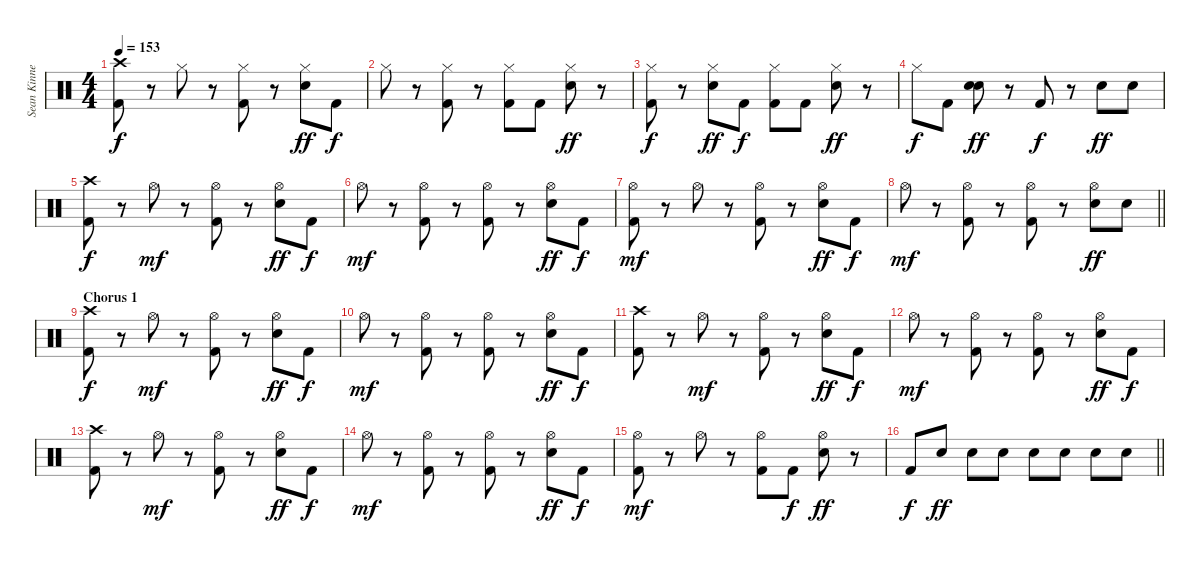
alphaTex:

\track ("Sean Kinney - Drums" "Sean Kinne") {instrument percussion}
\staff {score}
\articulation defaults
\ts (4 4)
\tempo 153
\clef neutral
\ks c
("Crash high (hit)" "Kick (hit) 2").8{dy f} r.8 "Hi-Hat (closed)".8 r.8 ("Hi-Hat (closed)" "Kick (hit) 2").8 r.8 ("Hi-Hat (closed)" "Snare (hit) 2").8{dy ff} "Kick (hit) 2".8{dy f} |
"Hi-Hat (closed)".8 r.8 ("Hi-Hat (closed)" "Kick (hit) 2").8 r.8 ("Hi-Hat (closed)" "Kick (hit) 2").8 "Kick (hit) 2".8 ("Hi-Hat (closed)" "Snare (hit) 2").8{dy ff} r.8 |
("Hi-Hat (closed)" "Kick (hit) 2").8{dy f} r.8 ("Hi-Hat (closed)" "Snare (hit) 2").8{dy ff} "Kick (hit) 2".8{dy f} ("Hi-Hat (closed)" "Kick (hit) 2").8 "Kick (hit) 2".8 ("Hi-Hat (closed)" "Snare (hit) 2").8{dy ff} r.8 |
"Hi-Hat (closed)".8{dy f} "Kick (hit) 2".8 ("Snare (hit) 2" "Snare (hit) 2").8{dy ff} r.8 "Kick (hit) 2".8{dy f} r.8 "Snare (hit) 2".8{dy ff} "Snare (hit) 2".8 |
("Crash high (hit)" "Kick (hit) 2").8{dy f} r.8 "Hi-Hat (open)".8{dy mf} r.8 ("Hi-Hat (open)" "Kick (hit) 2").8 r.8 ("Hi-Hat (open)" "Snare (hit) 2").8{dy ff} "Kick (hit) 2".8{dy f} |
"Hi-Hat (open)".8{dy mf} r.8 ("Hi-Hat (open)" "Kick (hit) 2").8 r.8 ("Hi-Hat (open)" "Kick (hit) 2").8 r.8 ("Hi-Hat (open)" "Snare (hit) 2").8{dy ff} "Kick (hit) 2".8{dy f} |
("Hi-Hat (open)" "Kick (hit) 2").8{dy mf} r.8 "Hi-Hat (open)".8 r.8 ("Hi-Hat (open)" "Kick (hit) 2").8 r.8 ("Hi-Hat (open)" "Snare (hit) 2").8{dy ff} "Kick (hit) 2".8{dy f} |
\barLineRight lightlight "Hi-Hat (open)".8{dy mf}
r.8 ("Hi-Hat (open)" "Kick (hit) 2").8 r.8 ("Hi-Hat (open)" "Kick (hit) 2").8 r.8 ("Hi-Hat (open)" "Snare (hit) 2").8{dy ff} "Snare (hit) 2".8 |
\section ("" "Chorus 1")
("Crash high (hit)" "Kick (hit) 2").8{dy f} r.8 "Hi-Hat (open)".8{dy mf} r.8 ("Hi-Hat (open)" "Kick (hit) 2").8 r.8 ("Hi-Hat (open)" "Snare (hit) 2").8{dy ff} "Kick (hit) 2".8{dy f} |
"Hi-Hat (open)".8{dy mf} r.8 ("Hi-Hat (open)" "Kick (hit) 2").8 r.8 ("Hi-Hat (open)" "Kick (hit) 2").8 r.8 ("Hi-Hat (open)" "Snare (hit) 2").8{dy ff} "Kick (hit) 2".8{dy f} |
("Crash high (hit)" "Kick (hit) 2").8 r.8 "Hi-Hat (open)".8{dy mf} r.8 ("Hi-Hat (open)" "Kick (hit) 2").8 r.8 ("Hi-Hat (open)" "Snare (hit) 2").8{dy ff} "Kick (hit) 2".8{dy f} |
"Hi-Hat (open)".8{dy mf} r.8 ("Hi-Hat (open)" "Kick (hit) 2").8 r.8 ("Hi-Hat (open)" "Kick (hit) 2").8 r.8 ("Hi-Hat (open)" "Snare (hit) 2").8{dy ff} "Kick (hit) 2".8{dy f} |
("Crash high (hit)" "Kick (hit) 2").8 r.8 "Hi-Hat (open)".8{dy mf} r.8 ("Hi-Hat (open)" "Kick (hit) 2").8 r.8 ("Hi-Hat (open)" "Snare (hit) 2").8{dy ff} "Kick (hit) 2".8{dy f} |
"Hi-Hat (open)".8{dy mf} r.8 ("Hi-Hat (open)" "Kick (hit) 2").8 r.8 ("Hi-Hat (open)" "Kick (hit) 2").8 r.8 ("Hi-Hat (open)" "Snare (hit) 2").8{dy ff} "Kick (hit) 2".8{dy f} |
("Hi-Hat (open)" "Kick (hit) 2").8{dy mf} r.8 "Hi-Hat (open)".8 r.8 ("Hi-Hat (open)" "Kick (hit) 2").8 "Kick (hit) 2".8{dy f} ("Hi-Hat (open)" "Snare (hit) 2").8{dy ff} r.8 |
\barLineRight lightlight "Kick (hit) 2".8{dy f} "Snare (hit) 2".8{dy ff} "Snare (hit) 2".8 "Snare (hit) 2".8 "Snare (hit) 2".8 "Snare (hit) 2".8 "Snare (hit) 2".8 "Snare (hit) 2".8
